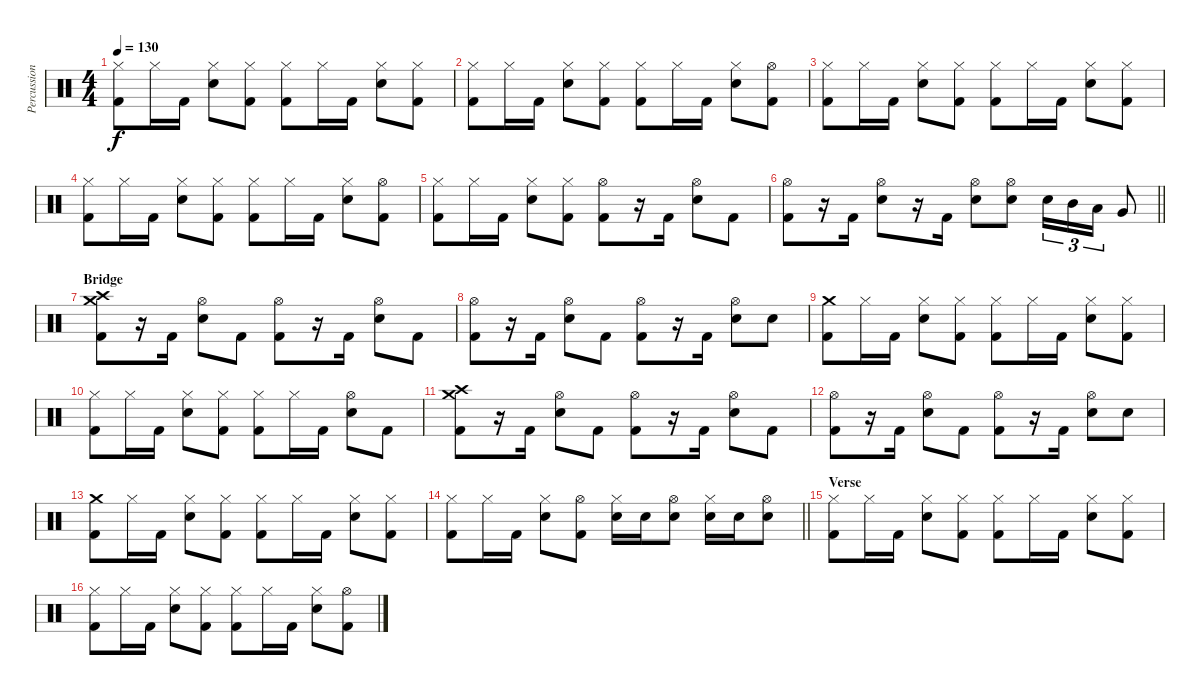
\track ("Percussion" "Percussion") {instrument percussion}
\staff {score}
\articulation defaults
\ts (4 4)
\tempo 130
\clef neutral
\ks c
("Hi-Hat (closed)" "Kick (hit) 2").8{dy f} "Hi-Hat (closed)".16 "Kick (hit) 2".16 ("Hi-Hat (closed)" "Snare (hit) 2").8 ("Hi-Hat (closed)" "Kick (hit) 2").8 ("Hi-Hat (closed)" "Kick (hit) 2").8 "Hi-Hat (closed)".16 "Kick (hit) 2".16 ("Hi-Hat (closed)" "Snare (hit) 2").8 ("Hi-Hat (closed)" "Kick (hit) 2").8 |
("Hi-Hat (closed)" "Kick (hit) 2").8 "Hi-Hat (closed)".16 "Kick (hit) 2".16 ("Hi-Hat (closed)" "Snare (hit) 2").8 ("Hi-Hat (closed)" "Kick (hit) 2").8 ("Hi-Hat (closed)" "Kick (hit) 2").8 "Hi-Hat (closed)".16 "Kick (hit) 2".16 ("Hi-Hat (closed)" "Snare (hit) 2").8 ("Hi-Hat (open)" "Kick (hit) 2").8 |
("Hi-Hat (closed)" "Kick (hit) 2").8 "Hi-Hat (closed)".16 "Kick (hit) 2".16 ("Hi-Hat (closed)" "Snare (hit) 2").8 ("Hi-Hat (closed)" "Kick (hit) 2").8 ("Hi-Hat (closed)" "Kick (hit) 2").8 "Hi-Hat (closed)".16 "Kick (hit) 2".16 ("Hi-Hat (closed)" "Snare (hit) 2").8 ("Hi-Hat (closed)" "Kick (hit) 2").8 |
("Hi-Hat (closed)" "Kick (hit) 2").8 "Hi-Hat (closed)".16 "Kick (hit) 2".16 ("Hi-Hat (closed)" "Snare (hit) 2").8 ("Hi-Hat (closed)" "Kick (hit) 2").8 ("Hi-Hat (closed)" "Kick (hit) 2").8 "Hi-Hat (closed)".16 "Kick (hit) 2".16 ("Hi-Hat (closed)" "Snare (hit) 2").8 ("Hi-Hat (open)" "Kick (hit) 2").8 |
("Hi-Hat (closed)" "Kick (hit) 2").8 "Hi-Hat (closed)".16 "Kick (hit) 2".16 ("Hi-Hat (closed)" "Snare (hit) 2").8 ("Hi-Hat (closed)" "Kick (hit) 2").8 ("Hi-Hat (open)" "Kick (hit) 2").8 r.16 "Kick (hit) 2".16 ("Hi-Hat (open)" "Snare (hit) 2").8 "Kick (hit) 2".8 |
\barLineRight lightlight
("Hi-Hat (open)" "Kick (hit) 2").8 r.16 "Kick (hit) 2".16 ("Hi-Hat (open)" "Snare (hit) 2").8 r.16 "Kick (hit) 2".16 ("Hi-Hat (open)" "Snare (hit) 2").8 ("Hi-Hat (open)" "Snare (hit) 2").8 "Snare (hit) 2".16{tu (3 2)} "Mid Tom (hit)".16{tu (3 2)} "Low Tom (hit)".16{tu (3 2)} "Very Low Tom (hit)".8 |
\section ("" "Bridge")
("Crash medium (hit)" "Crash high (hit)" "Kick (hit) 2").8 r.16 "Kick (hit) 2".16 ("Hi-Hat (open)" "Snare (hit) 2").8 "Kick (hit) 2".8 ("Hi-Hat (open)" "Kick (hit) 2").8 r.16 "Kick (hit) 2".16 ("Hi-Hat (open)" "Snare (hit) 2").8 "Kick (hit) 2".8 |
("Hi-Hat (open)" "Kick (hit) 2").8 r.16 "Kick (hit) 2".16 ("Hi-Hat (open)" "Snare (hit) 2").8 "Kick (hit) 2".8 ("Hi-Hat (open)" "Kick (hit) 2").8 r.16 "Kick (hit) 2".16 ("Hi-Hat (open)" "Snare (hit) 2").8 "Snare (hit) 2".8 |
("Crash medium (hit)" "Kick (hit) 2").8 "Hi-Hat (closed)".16 "Kick (hit) 2".16 ("Hi-Hat (closed)" "Snare (hit) 2").8 ("Hi-Hat (closed)" "Kick (hit) 2").8 ("Hi-Hat (closed)" "Kick (hit) 2").8 "Hi-Hat (closed)".16 "Kick (hit) 2".16 ("Hi-Hat (closed)" "Snare (hit) 2").8 ("Hi-Hat (closed)" "Kick (hit) 2").8 |
("Hi-Hat (closed)" "Kick (hit) 2").8 "Hi-Hat (closed)".16 "Kick (hit) 2".16 ("Hi-Hat (closed)" "Snare (hit) 2").8 ("Hi-Hat (closed)" "Kick (hit) 2").8 ("Hi-Hat (closed)" "Kick (hit) 2").8 "Hi-Hat (closed)".16 "Kick (hit) 2".16 ("Hi-Hat (open)" "Snare (hit) 2").8 "Kick (hit) 2".8 |
("Crash medium (hit)" "Crash high (hit)" "Kick (hit) 2").8 r.16 "Kick (hit) 2".16 ("Hi-Hat (open)" "Snare (hit) 2").8 "Kick (hit) 2".8 ("Hi-Hat (open)" "Kick (hit) 2").8 r.16 "Kick (hit) 2".16 ("Hi-Hat (open)" "Snare (hit) 2").8 "Kick (hit) 2".8 |
("Hi-Hat (open)" "Kick (hit) 2").8 r.16 "Kick (hit) 2".16 ("Hi-Hat (open)" "Snare (hit) 2").8 "Kick (hit) 2".8 ("Hi-Hat (open)" "Kick (hit) 2").8 r.16 "Kick (hit) 2".16 ("Hi-Hat (open)" "Snare (hit) 2").8 "Snare (hit) 2".8 |
("Crash medium (hit)" "Kick (hit) 2").8 "Hi-Hat (closed)".16 "Kick (hit) 2".16 ("Hi-Hat (closed)" "Snare (hit) 2").8 ("Hi-Hat (closed)" "Kick (hit) 2").8 ("Hi-Hat (closed)" "Kick (hit) 2").8 "Hi-Hat (closed)".16 "Kick (hit) 2".16 ("Hi-Hat (closed)" "Snare (hit) 2").8 ("Hi-Hat (closed)" "Kick (hit) 2").8 |
\barLineRight lightlight
("Hi-Hat (closed)" "Kick (hit) 2").8 "Hi-Hat (closed)".16 "Kick (hit) 2".16 ("Hi-Hat (closed)" "Snare (hit) 2").8 ("Hi-Hat (open)" "Kick (hit) 2").8 ("Hi-Hat (closed)" "Snare (hit) 2").16 "Snare (hit) 2".16 ("Hi-Hat (open)" "Snare (hit) 2").8 ("Hi-Hat (closed)" "Snare (hit) 2").16 "Snare (hit) 2".16 ("Hi-Hat (open)" "Snare (hit) 2").8 |
\section ("" "Verse")
("Hi-Hat (closed)" "Kick (hit) 2").8 "Hi-Hat (closed)".16 "Kick (hit) 2".16 ("Hi-Hat (closed)" "Snare (hit) 2").8 ("Hi-Hat (closed)" "Kick (hit) 2").8 ("Hi-Hat (closed)" "Kick (hit) 2").8 "Hi-Hat (closed)".16 "Kick (hit) 2".16 ("Hi-Hat (closed)" "Snare (hit) 2").8 ("Hi-Hat (closed)" "Kick (hit) 2").8 |
("Hi-Hat (closed)" "Kick (hit) 2").8 "Hi-Hat (closed)".16 "Kick (hit) 2".16 ("Hi-Hat (closed)" "Snare (hit) 2").8 ("Hi-Hat (closed)" "Kick (hit) 2").8 ("Hi-Hat (closed)" "Kick (hit) 2").8 "Hi-Hat (closed)".16 "Kick (hit) 2".16 ("Hi-Hat (closed)" "Snare (hit) 2").8 ("Hi-Hat (open)" "Kick (hit) 2").8
